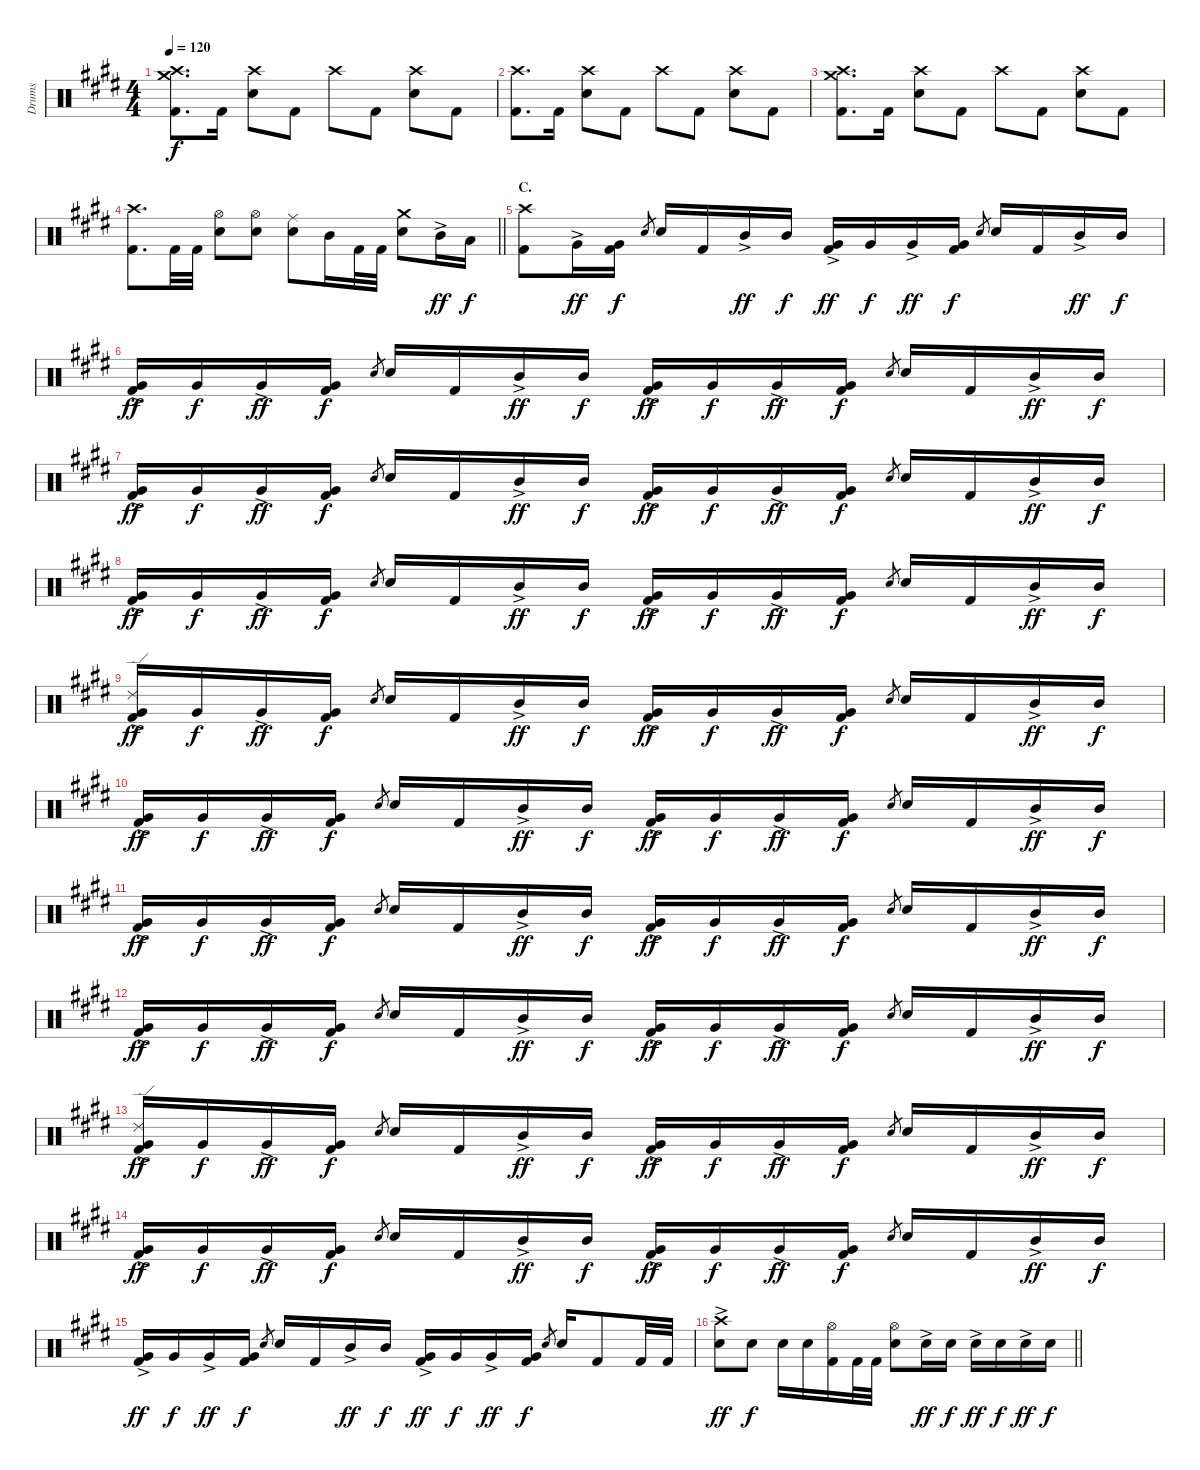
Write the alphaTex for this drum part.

\track ("Drums" "Drums") {instrument percussion}
\staff {score}
\articulation defaults
\ts (4 4)
\tempo 120
\clef neutral
\ks e
("Crash medium (hit)" "Crash high (hit)" "Kick (hit) 2").8{d dy f} "Kick (hit) 2".16 ("Crash high (hit)" "Electric Snare (hit)").8 "Kick (hit) 2".8 "Crash high (hit)".8 "Kick (hit) 2".8 ("Crash high (hit)" "Electric Snare (hit)").8 "Kick (hit) 2".8 |
("Crash high (hit)" "Kick (hit) 2").8{d} "Kick (hit) 2".16 ("Crash high (hit)" "Electric Snare (hit)").8 "Kick (hit) 2".8 "Crash high (hit)".8 "Kick (hit) 2".8 ("Crash high (hit)" "Electric Snare (hit)").8 "Kick (hit) 2".8 |
("Crash medium (hit)" "Crash high (hit)" "Kick (hit) 2").8{d} "Kick (hit) 2".16 ("Crash high (hit)" "Electric Snare (hit)").8 "Kick (hit) 2".8 "Crash high (hit)".8 "Kick (hit) 2".8 ("Crash high (hit)" "Electric Snare (hit)").8 "Kick (hit) 2".8 |
\barLineRight lightlight
("Crash high (hit)" "Kick (hit) 2").8{d} "Kick (hit) 2".32 "Kick (hit) 2".32 ("Hi-Hat (open)" "Electric Snare (hit)").8 ("Hi-Hat (open)" "Electric Snare (hit)").8 ("Ride (middle)" "Electric Snare (hit)").8 "Mid Tom (hit)".16 "Kick (hit) 2".32 "Kick (hit) 2".32 ("Crash medium (hit)" "Electric Snare (hit)").8 "Mid Tom (hit)"{ac}.16{dy ff} "Low Tom (hit)".16{dy f} |
\section ("" "C.")
("Crash high (hit)" "Kick (hit) 2").8 "Very Low Tom (hit)"{ac}.16{dy ff} ("Very Low Tom (hit)" "Kick (hit) 2").16{dy f} "Electric Snare (hit)".8{gr} "Electric Snare (hit)".16 "Kick (hit) 2".16 "Mid Tom (hit)"{ac}.16{dy ff} "Mid Tom (hit)".16{dy f} ("Very Low Tom (hit)"{ac} "Kick (hit) 2").16{dy ff} "Very Low Tom (hit)".16{dy f} "Very Low Tom (hit)"{ac}.16{dy ff} ("Very Low Tom (hit)" "Kick (hit) 2").16{dy f} "Electric Snare (hit)".8{gr} "Electric Snare (hit)".16 "Kick (hit) 2".16 "Mid Tom (hit)"{ac}.16{dy ff} "Mid Tom (hit)".16{dy f} |
("Very Low Tom (hit)"{ac} "Kick (hit) 2").16{dy ff} "Very Low Tom (hit)".16{dy f} "Very Low Tom (hit)"{ac}.16{dy ff} ("Very Low Tom (hit)" "Kick (hit) 2").16{dy f} "Electric Snare (hit)".8{gr} "Electric Snare (hit)".16 "Kick (hit) 2".16 "Mid Tom (hit)"{ac}.16{dy ff} "Mid Tom (hit)".16{dy f} ("Very Low Tom (hit)"{ac} "Kick (hit) 2").16{dy ff} "Very Low Tom (hit)".16{dy f} "Very Low Tom (hit)"{ac}.16{dy ff} ("Very Low Tom (hit)" "Kick (hit) 2").16{dy f} "Electric Snare (hit)".8{gr} "Electric Snare (hit)".16 "Kick (hit) 2".16 "Mid Tom (hit)"{ac}.16{dy ff} "Mid Tom (hit)".16{dy f} |
("Very Low Tom (hit)"{ac} "Kick (hit) 2").16{dy ff} "Very Low Tom (hit)".16{dy f} "Very Low Tom (hit)"{ac}.16{dy ff} ("Very Low Tom (hit)" "Kick (hit) 2").16{dy f} "Electric Snare (hit)".8{gr} "Electric Snare (hit)".16 "Kick (hit) 2".16 "Mid Tom (hit)"{ac}.16{dy ff} "Mid Tom (hit)".16{dy f} ("Very Low Tom (hit)"{ac} "Kick (hit) 2").16{dy ff} "Very Low Tom (hit)".16{dy f} "Very Low Tom (hit)"{ac}.16{dy ff} ("Very Low Tom (hit)" "Kick (hit) 2").16{dy f} "Electric Snare (hit)".8{gr} "Electric Snare (hit)".16 "Kick (hit) 2".16 "Mid Tom (hit)"{ac}.16{dy ff} "Mid Tom (hit)".16{dy f} |
("Very Low Tom (hit)"{ac} "Kick (hit) 2").16{dy ff} "Very Low Tom (hit)".16{dy f} "Very Low Tom (hit)"{ac}.16{dy ff} ("Very Low Tom (hit)" "Kick (hit) 2").16{dy f} "Electric Snare (hit)".8{gr} "Electric Snare (hit)".16 "Kick (hit) 2".16 "Mid Tom (hit)"{ac}.16{dy ff} "Mid Tom (hit)".16{dy f} ("Very Low Tom (hit)"{ac} "Kick (hit) 2").16{dy ff} "Very Low Tom (hit)".16{dy f} "Very Low Tom (hit)"{ac}.16{dy ff} ("Very Low Tom (hit)" "Kick (hit) 2").16{dy f} "Electric Snare (hit)".8{gr} "Electric Snare (hit)".16 "Kick (hit) 2".16 "Mid Tom (hit)"{ac}.16{dy ff} "Mid Tom (hit)".16{dy f} |
("Ride (edge) 2" "Very Low Tom (hit)"{ac} "Kick (hit) 2").16{dy ff} "Very Low Tom (hit)".16{dy f} "Very Low Tom (hit)"{ac}.16{dy ff} ("Very Low Tom (hit)" "Kick (hit) 2").16{dy f} "Electric Snare (hit)".8{gr} "Electric Snare (hit)".16 "Kick (hit) 2".16 "Mid Tom (hit)"{ac}.16{dy ff} "Mid Tom (hit)".16{dy f} ("Very Low Tom (hit)"{ac} "Kick (hit) 2").16{dy ff} "Very Low Tom (hit)".16{dy f} "Very Low Tom (hit)"{ac}.16{dy ff} ("Very Low Tom (hit)" "Kick (hit) 2").16{dy f} "Electric Snare (hit)".8{gr} "Electric Snare (hit)".16 "Kick (hit) 2".16 "Mid Tom (hit)"{ac}.16{dy ff} "Mid Tom (hit)".16{dy f} |
("Very Low Tom (hit)"{ac} "Kick (hit) 2").16{dy ff} "Very Low Tom (hit)".16{dy f} "Very Low Tom (hit)"{ac}.16{dy ff} ("Very Low Tom (hit)" "Kick (hit) 2").16{dy f} "Electric Snare (hit)".8{gr} "Electric Snare (hit)".16 "Kick (hit) 2".16 "Mid Tom (hit)"{ac}.16{dy ff} "Mid Tom (hit)".16{dy f} ("Very Low Tom (hit)"{ac} "Kick (hit) 2").16{dy ff} "Very Low Tom (hit)".16{dy f} "Very Low Tom (hit)"{ac}.16{dy ff} ("Very Low Tom (hit)" "Kick (hit) 2").16{dy f} "Electric Snare (hit)".8{gr} "Electric Snare (hit)".16 "Kick (hit) 2".16 "Mid Tom (hit)"{ac}.16{dy ff} "Mid Tom (hit)".16{dy f} |
("Very Low Tom (hit)"{ac} "Kick (hit) 2").16{dy ff} "Very Low Tom (hit)".16{dy f} "Very Low Tom (hit)"{ac}.16{dy ff} ("Very Low Tom (hit)" "Kick (hit) 2").16{dy f} "Electric Snare (hit)".8{gr} "Electric Snare (hit)".16 "Kick (hit) 2".16 "Mid Tom (hit)"{ac}.16{dy ff} "Mid Tom (hit)".16{dy f} ("Very Low Tom (hit)"{ac} "Kick (hit) 2").16{dy ff} "Very Low Tom (hit)".16{dy f} "Very Low Tom (hit)"{ac}.16{dy ff} ("Very Low Tom (hit)" "Kick (hit) 2").16{dy f} "Electric Snare (hit)".8{gr} "Electric Snare (hit)".16 "Kick (hit) 2".16 "Mid Tom (hit)"{ac}.16{dy ff} "Mid Tom (hit)".16{dy f} |
("Very Low Tom (hit)"{ac} "Kick (hit) 2").16{dy ff} "Very Low Tom (hit)".16{dy f} "Very Low Tom (hit)"{ac}.16{dy ff} ("Very Low Tom (hit)" "Kick (hit) 2").16{dy f} "Electric Snare (hit)".8{gr} "Electric Snare (hit)".16 "Kick (hit) 2".16 "Mid Tom (hit)"{ac}.16{dy ff} "Mid Tom (hit)".16{dy f} ("Very Low Tom (hit)"{ac} "Kick (hit) 2").16{dy ff} "Very Low Tom (hit)".16{dy f} "Very Low Tom (hit)"{ac}.16{dy ff} ("Very Low Tom (hit)" "Kick (hit) 2").16{dy f} "Electric Snare (hit)".8{gr} "Electric Snare (hit)".16 "Kick (hit) 2".16 "Mid Tom (hit)"{ac}.16{dy ff} "Mid Tom (hit)".16{dy f} |
("Ride (edge) 2" "Very Low Tom (hit)"{ac} "Kick (hit) 2").16{dy ff} "Very Low Tom (hit)".16{dy f} "Very Low Tom (hit)"{ac}.16{dy ff} ("Very Low Tom (hit)" "Kick (hit) 2").16{dy f} "Electric Snare (hit)".8{gr} "Electric Snare (hit)".16 "Kick (hit) 2".16 "Mid Tom (hit)"{ac}.16{dy ff} "Mid Tom (hit)".16{dy f} ("Very Low Tom (hit)"{ac} "Kick (hit) 2").16{dy ff} "Very Low Tom (hit)".16{dy f} "Very Low Tom (hit)"{ac}.16{dy ff} ("Very Low Tom (hit)" "Kick (hit) 2").16{dy f} "Electric Snare (hit)".8{gr} "Electric Snare (hit)".16 "Kick (hit) 2".16 "Mid Tom (hit)"{ac}.16{dy ff} "Mid Tom (hit)".16{dy f} |
("Very Low Tom (hit)"{ac} "Kick (hit) 2").16{dy ff} "Very Low Tom (hit)".16{dy f} "Very Low Tom (hit)"{ac}.16{dy ff} ("Very Low Tom (hit)" "Kick (hit) 2").16{dy f} "Electric Snare (hit)".8{gr} "Electric Snare (hit)".16 "Kick (hit) 2".16 "Mid Tom (hit)"{ac}.16{dy ff} "Mid Tom (hit)".16{dy f} ("Very Low Tom (hit)"{ac} "Kick (hit) 2").16{dy ff} "Very Low Tom (hit)".16{dy f} "Very Low Tom (hit)"{ac}.16{dy ff} ("Very Low Tom (hit)" "Kick (hit) 2").16{dy f} "Electric Snare (hit)".8{gr} "Electric Snare (hit)".16 "Kick (hit) 2".16 "Mid Tom (hit)"{ac}.16{dy ff} "Mid Tom (hit)".16{dy f} |
("Very Low Tom (hit)"{ac} "Kick (hit) 2").16{dy ff} "Very Low Tom (hit)".16{dy f} "Very Low Tom (hit)"{ac}.16{dy ff} ("Very Low Tom (hit)" "Kick (hit) 2").16{dy f} "Electric Snare (hit)".8{gr} "Electric Snare (hit)".16 "Kick (hit) 2".16 "Mid Tom (hit)"{ac}.16{dy ff} "Mid Tom (hit)".16{dy f} ("Very Low Tom (hit)"{ac} "Kick (hit) 2").16{dy ff} "Very Low Tom (hit)".16{dy f} "Very Low Tom (hit)"{ac}.16{dy ff} ("Very Low Tom (hit)" "Kick (hit) 2").16{dy f} "Electric Snare (hit)".8{gr} "Electric Snare (hit)".16 "Kick (hit) 2".8 "Kick (hit) 2".32 "Kick (hit) 2".32 |
\barLineRight lightlight
("Crash high (hit)" "Electric Snare (hit)"{ac}).8{dy ff} "Electric Snare (hit)".8{dy f} "Electric Snare (hit)".16 "Electric Snare (hit)".16 ("Hi-Hat (open)" "Kick (hit) 2").16 "Kick (hit) 2".32 "Kick (hit) 2".32 ("Hi-Hat (open)" "Electric Snare (hit)").8 "Electric Snare (hit)"{ac}.16{dy ff} "Electric Snare (hit)".16{dy f} "Electric Snare (hit)"{ac}.16{dy ff} "Electric Snare (hit)".16{dy f} "Electric Snare (hit)"{ac}.16{dy ff} "Electric Snare (hit)".16{dy f}
